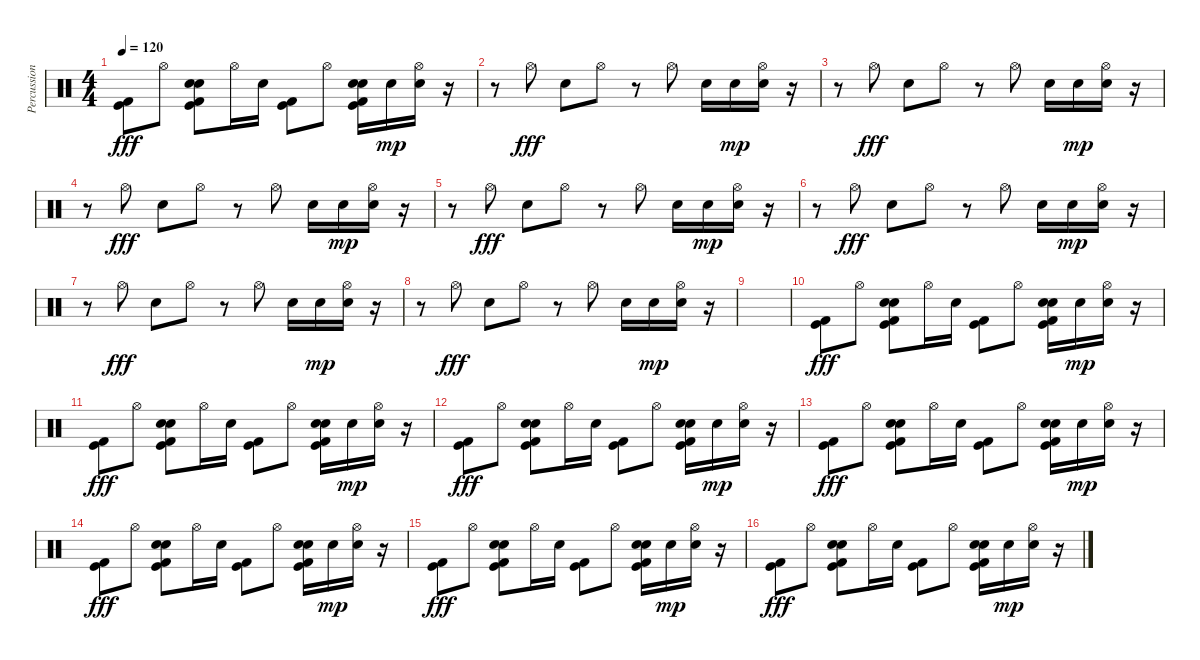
\track ("Percussion" "Percussion") {instrument percussion}
\staff {score}
\articulation defaults
\ts (4 4)
\tempo 120
\clef neutral
\ks c
("Kick (hit) 2" "Kick (hit)").8{dy fff} "Hi-Hat (open)".8 ("Kick (hit) 2" "Kick (hit)" "Hand Clap (hit)" "Electric Snare (hit)").8 "Hi-Hat (open)".16 "Electric Snare (hit)".16 ("Kick (hit) 2" "Kick (hit)").8 "Hi-Hat (open)".8 ("Kick (hit) 2" "Kick (hit)" "Hand Clap (hit)" "Electric Snare (hit)").16 "Electric Snare (hit)".16{dy mp} ("Hi-Hat (open)" "Electric Snare (hit)").16 r.16 |
r.8 "Hi-Hat (open)".8{dy fff} "Hand Clap (hit)".8 "Hi-Hat (open)".8 r.8 "Hi-Hat (open)".8 "Hand Clap (hit)".16 "Hand Clap (hit)".16{dy mp} ("Hi-Hat (open)" "Hand Clap (hit)").16 r.16 |
r.8 "Hi-Hat (open)".8{dy fff} "Hand Clap (hit)".8 "Hi-Hat (open)".8 r.8 "Hi-Hat (open)".8 "Hand Clap (hit)".16 "Hand Clap (hit)".16{dy mp} ("Hi-Hat (open)" "Hand Clap (hit)").16 r.16 |
r.8 "Hi-Hat (open)".8{dy fff} "Hand Clap (hit)".8 "Hi-Hat (open)".8 r.8 "Hi-Hat (open)".8 "Hand Clap (hit)".16 "Hand Clap (hit)".16{dy mp} ("Hi-Hat (open)" "Hand Clap (hit)").16 r.16 |
r.8 "Hi-Hat (open)".8{dy fff} "Hand Clap (hit)".8 "Hi-Hat (open)".8 r.8 "Hi-Hat (open)".8 "Hand Clap (hit)".16 "Hand Clap (hit)".16{dy mp} ("Hi-Hat (open)" "Hand Clap (hit)").16 r.16 |
r.8 "Hi-Hat (open)".8{dy fff} "Hand Clap (hit)".8 "Hi-Hat (open)".8 r.8 "Hi-Hat (open)".8 "Hand Clap (hit)".16 "Hand Clap (hit)".16{dy mp} ("Hi-Hat (open)" "Hand Clap (hit)").16 r.16 |
r.8 "Hi-Hat (open)".8{dy fff} "Hand Clap (hit)".8 "Hi-Hat (open)".8 r.8 "Hi-Hat (open)".8 "Hand Clap (hit)".16 "Hand Clap (hit)".16{dy mp} ("Hi-Hat (open)" "Hand Clap (hit)").16 r.16 |
r.8 "Hi-Hat (open)".8{dy fff} "Hand Clap (hit)".8 "Hi-Hat (open)".8 r.8 "Hi-Hat (open)".8 "Hand Clap (hit)".16 "Hand Clap (hit)".16{dy mp} ("Hi-Hat (open)" "Hand Clap (hit)").16 r.16 |
|
("Kick (hit) 2" "Kick (hit)").8{dy fff} "Hi-Hat (open)".8 ("Kick (hit) 2" "Kick (hit)" "Hand Clap (hit)" "Electric Snare (hit)").8 "Hi-Hat (open)".16 "Electric Snare (hit)".16 ("Kick (hit) 2" "Kick (hit)").8 "Hi-Hat (open)".8 ("Kick (hit) 2" "Kick (hit)" "Hand Clap (hit)" "Electric Snare (hit)").16 "Electric Snare (hit)".16{dy mp} ("Hi-Hat (open)" "Electric Snare (hit)").16 r.16 |
("Kick (hit) 2" "Kick (hit)").8{dy fff} "Hi-Hat (open)".8 ("Kick (hit) 2" "Kick (hit)" "Hand Clap (hit)" "Electric Snare (hit)").8 "Hi-Hat (open)".16 "Electric Snare (hit)".16 ("Kick (hit) 2" "Kick (hit)").8 "Hi-Hat (open)".8 ("Kick (hit) 2" "Kick (hit)" "Hand Clap (hit)" "Electric Snare (hit)").16 "Electric Snare (hit)".16{dy mp} ("Hi-Hat (open)" "Electric Snare (hit)").16 r.16 |
("Kick (hit) 2" "Kick (hit)").8{dy fff} "Hi-Hat (open)".8 ("Kick (hit) 2" "Kick (hit)" "Hand Clap (hit)" "Electric Snare (hit)").8 "Hi-Hat (open)".16 "Electric Snare (hit)".16 ("Kick (hit) 2" "Kick (hit)").8 "Hi-Hat (open)".8 ("Kick (hit) 2" "Kick (hit)" "Hand Clap (hit)" "Electric Snare (hit)").16 "Electric Snare (hit)".16{dy mp} ("Hi-Hat (open)" "Electric Snare (hit)").16 r.16 |
("Kick (hit) 2" "Kick (hit)").8{dy fff} "Hi-Hat (open)".8 ("Kick (hit) 2" "Kick (hit)" "Hand Clap (hit)" "Electric Snare (hit)").8 "Hi-Hat (open)".16 "Electric Snare (hit)".16 ("Kick (hit) 2" "Kick (hit)").8 "Hi-Hat (open)".8 ("Kick (hit) 2" "Kick (hit)" "Hand Clap (hit)" "Electric Snare (hit)").16 "Electric Snare (hit)".16{dy mp} ("Hi-Hat (open)" "Electric Snare (hit)").16 r.16 |
("Kick (hit) 2" "Kick (hit)").8{dy fff} "Hi-Hat (open)".8 ("Kick (hit) 2" "Kick (hit)" "Hand Clap (hit)" "Electric Snare (hit)").8 "Hi-Hat (open)".16 "Electric Snare (hit)".16 ("Kick (hit) 2" "Kick (hit)").8 "Hi-Hat (open)".8 ("Kick (hit) 2" "Kick (hit)" "Hand Clap (hit)" "Electric Snare (hit)").16 "Electric Snare (hit)".16{dy mp} ("Hi-Hat (open)" "Electric Snare (hit)").16 r.16 |
("Kick (hit) 2" "Kick (hit)").8{dy fff} "Hi-Hat (open)".8 ("Kick (hit) 2" "Kick (hit)" "Hand Clap (hit)" "Electric Snare (hit)").8 "Hi-Hat (open)".16 "Electric Snare (hit)".16 ("Kick (hit) 2" "Kick (hit)").8 "Hi-Hat (open)".8 ("Kick (hit) 2" "Kick (hit)" "Hand Clap (hit)" "Electric Snare (hit)").16 "Electric Snare (hit)".16{dy mp} ("Hi-Hat (open)" "Electric Snare (hit)").16 r.16 |
("Kick (hit) 2" "Kick (hit)").8{dy fff} "Hi-Hat (open)".8 ("Kick (hit) 2" "Kick (hit)" "Hand Clap (hit)" "Electric Snare (hit)").8 "Hi-Hat (open)".16 "Electric Snare (hit)".16 ("Kick (hit) 2" "Kick (hit)").8 "Hi-Hat (open)".8 ("Kick (hit) 2" "Kick (hit)" "Hand Clap (hit)" "Electric Snare (hit)").16 "Electric Snare (hit)".16{dy mp} ("Hi-Hat (open)" "Electric Snare (hit)").16 r.16
